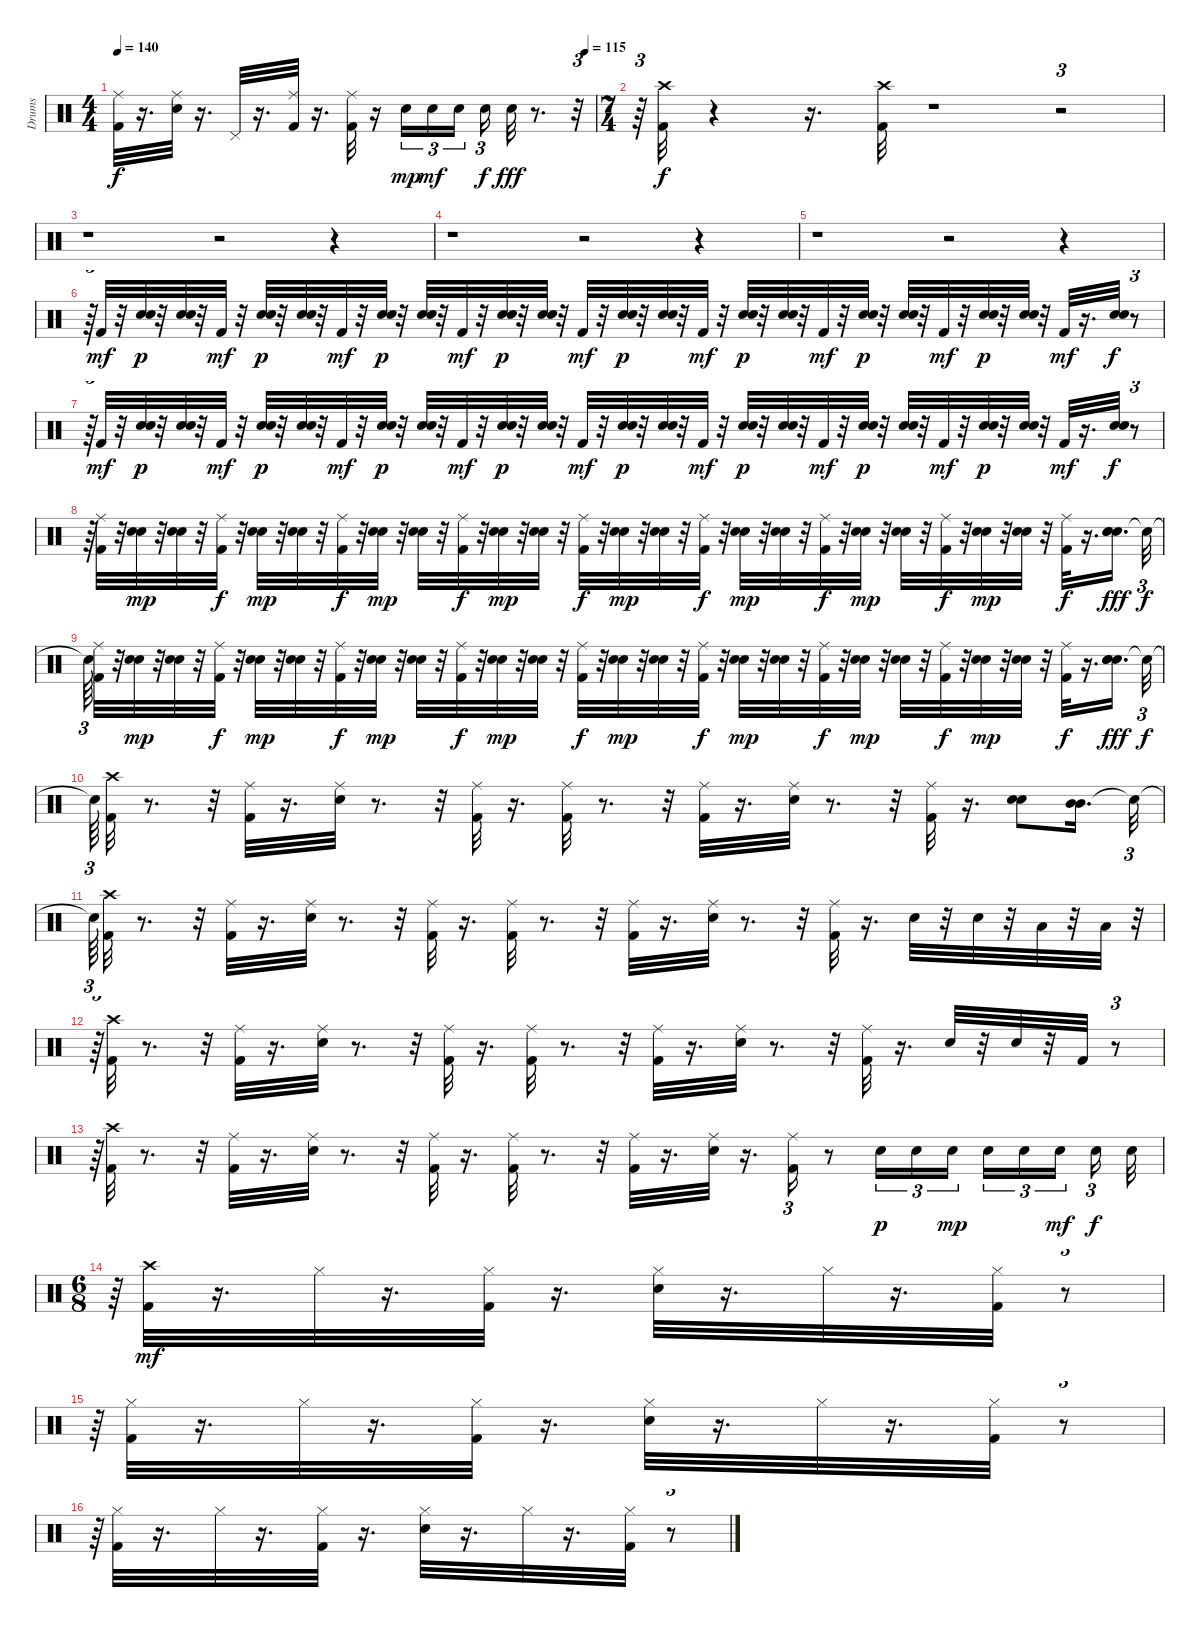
\track ("Drums" "Drums") {instrument percussion}
\staff {score}
\articulation defaults
\ts (4 4)
\tempo 140
\tempo (115 0.9791666666666666)
\clef neutral
\ks c
("Ride (middle)" "Kick (hit) 2").32{dy f} r.16{d} ("Snare (hit) 2" "Ride (middle)").32 r.16{d} "Pedal Hi-Hat (hit)".32 r.16{d} ("Ride (middle)" "Kick (hit) 2").32 r.16{d} ("Kick (hit) 2" "Ride (middle)").32 r.16 "Snare (hit) 2".16{tu (3 2) dy mp} "Snare (hit) 2".16{tu (3 2) dy mf} "Snare (hit) 2".16{tu (3 2) beam splitsecondary} "Snare (hit) 2".16{tu (3 2) dy f} "Snare (hit) 2".32{dy fff} r.8{d} r.32{tu (3 2)} |
\ts (7 4)
r.64{tu (3 2)} ("Kick (hit) 2" "Crash high (hit)").32{dy f} r.4 r.16{d} ("Crash high (hit)" "Kick (hit) 2").32 r.1 r.2{tu (3 2)} |
r.1 r.2 r.4 |
r.1 r.2 r.4 |
r.1 r.2 r.4 |
r.64{tu (3 2)} "Kick (hit) 2".32{dy mf} r.32 ("Snare (hit) 2" "Hand Clap (hit)").32{dy p} r.32 ("Snare (hit) 2" "Hand Clap (hit)").32 r.32 "Kick (hit) 2".32{dy mf} r.32 ("Snare (hit) 2" "Hand Clap (hit)").32{dy p} r.32 ("Hand Clap (hit)" "Snare (hit) 2").32 r.32 "Kick (hit) 2".32{dy mf} r.32 ("Hand Clap (hit)" "Snare (hit) 2").32{dy p} r.32 ("Hand Clap (hit)" "Snare (hit) 2").32 r.32 "Kick (hit) 2".32{dy mf} r.32 ("Snare (hit) 2" "Hand Clap (hit)").32{dy p} r.32 ("Hand Clap (hit)" "Snare (hit) 2").32 r.32 "Kick (hit) 2".32{dy mf} r.32 ("Hand Clap (hit)" "Snare (hit) 2").32{dy p} r.32 ("Hand Clap (hit)" "Snare (hit) 2").32 r.32 "Kick (hit) 2".32{dy mf} r.32 ("Hand Clap (hit)" "Snare (hit) 2").32{dy p} r.32 ("Snare (hit) 2" "Hand Clap (hit)").32 r.32 "Kick (hit) 2".32{dy mf} r.32 ("Hand Clap (hit)" "Snare (hit) 2").32{dy p} r.32 ("Hand Clap (hit)" "Snare (hit) 2").32 r.32 "Kick (hit) 2".32{dy mf} r.32 ("Hand Clap (hit)" "Snare (hit) 2").32{dy p} r.32 ("Snare (hit) 2" "Hand Clap (hit)").32 r.32 "Kick (hit) 2".32{dy mf} r.16{d} ("Snare (hit) 2" "Hand Clap (hit)").32{dy f} r.8{tu (3 2)} |
r.64{tu (3 2)} "Kick (hit) 2".32{dy mf} r.32 ("Snare (hit) 2" "Hand Clap (hit)").32{dy p} r.32 ("Snare (hit) 2" "Hand Clap (hit)").32 r.32 "Kick (hit) 2".32{dy mf} r.32 ("Snare (hit) 2" "Hand Clap (hit)").32{dy p} r.32 ("Hand Clap (hit)" "Snare (hit) 2").32 r.32 "Kick (hit) 2".32{dy mf} r.32 ("Hand Clap (hit)" "Snare (hit) 2").32{dy p} r.32 ("Hand Clap (hit)" "Snare (hit) 2").32 r.32 "Kick (hit) 2".32{dy mf} r.32 ("Snare (hit) 2" "Hand Clap (hit)").32{dy p} r.32 ("Hand Clap (hit)" "Snare (hit) 2").32 r.32 "Kick (hit) 2".32{dy mf} r.32 ("Hand Clap (hit)" "Snare (hit) 2").32{dy p} r.32 ("Hand Clap (hit)" "Snare (hit) 2").32 r.32 "Kick (hit) 2".32{dy mf} r.32 ("Hand Clap (hit)" "Snare (hit) 2").32{dy p} r.32 ("Snare (hit) 2" "Hand Clap (hit)").32 r.32 "Kick (hit) 2".32{dy mf} r.32 ("Hand Clap (hit)" "Snare (hit) 2").32{dy p} r.32 ("Hand Clap (hit)" "Snare (hit) 2").32 r.32 "Kick (hit) 2".32{dy mf} r.32 ("Hand Clap (hit)" "Snare (hit) 2").32{dy p} r.32 ("Snare (hit) 2" "Hand Clap (hit)").32 r.32 "Kick (hit) 2".32{dy mf} r.16{d} ("Snare (hit) 2" "Hand Clap (hit)").32{dy f} r.8{tu (3 2)} |
r.64{tu (3 2)} ("Kick (hit) 2" "Ride (middle)").32 r.32 ("Snare (hit) 2" "Hand Clap (hit)").32{dy mp} r.32 ("Hand Clap (hit)" "Snare (hit) 2").32 r.32 ("Kick (hit) 2" "Ride (middle)").32{dy f} r.32 ("Snare (hit) 2" "Hand Clap (hit)").32{dy mp} r.32 ("Snare (hit) 2" "Hand Clap (hit)").32 r.32 ("Ride (middle)" "Kick (hit) 2").32{dy f} r.32 ("Snare (hit) 2" "Hand Clap (hit)").32{dy mp} r.32 ("Snare (hit) 2" "Hand Clap (hit)").32 r.32 ("Kick (hit) 2" "Ride (middle)").32{dy f} r.32 ("Snare (hit) 2" "Hand Clap (hit)").32{dy mp} r.32 ("Hand Clap (hit)" "Snare (hit) 2").32 r.32 ("Kick (hit) 2" "Ride (middle)").32{dy f} r.32 ("Snare (hit) 2" "Hand Clap (hit)").32{dy mp} r.32 ("Snare (hit) 2" "Hand Clap (hit)").32 r.32 ("Ride (middle)" "Kick (hit) 2").32{dy f} r.32 ("Hand Clap (hit)" "Snare (hit) 2").32{dy mp} r.32 ("Hand Clap (hit)" "Snare (hit) 2").32 r.32 ("Kick (hit) 2" "Ride (middle)").32{dy f} r.32 ("Hand Clap (hit)" "Snare (hit) 2").32{dy mp} r.32 ("Hand Clap (hit)" "Snare (hit) 2").32 r.32 ("Kick (hit) 2" "Ride (middle)").32{dy f} r.32 ("Hand Clap (hit)" "Snare (hit) 2").32{dy mp} r.32 ("Hand Clap (hit)" "Snare (hit) 2").32 r.32 ("Kick (hit) 2" "Ride (middle)").32{dy f} r.16{d} ("Hand Clap (hit)" "Snare (hit) 2" "Snare (hit) 2").16{d dy fff} "Snare (hit)"{t}.32{tu (3 2) dy f} |
"Snare (hit)"{t}.64{tu (3 2)} ("Kick (hit) 2" "Ride (middle)").32 r.32 ("Snare (hit) 2" "Hand Clap (hit)").32{dy mp} r.32 ("Hand Clap (hit)" "Snare (hit) 2").32 r.32 ("Ride (middle)" "Kick (hit) 2").32{dy f} r.32 ("Hand Clap (hit)" "Snare (hit) 2").32{dy mp} r.32 ("Snare (hit) 2" "Hand Clap (hit)").32 r.32 ("Ride (middle)" "Kick (hit) 2").32{dy f} r.32 ("Snare (hit) 2" "Hand Clap (hit)").32{dy mp} r.32 ("Hand Clap (hit)" "Snare (hit) 2").32 r.32 ("Kick (hit) 2" "Ride (middle)").32{dy f} r.32 ("Hand Clap (hit)" "Snare (hit) 2").32{dy mp} r.32 ("Snare (hit) 2" "Hand Clap (hit)").32 r.32 ("Ride (middle)" "Kick (hit) 2").32{dy f} r.32 ("Snare (hit) 2" "Hand Clap (hit)").32{dy mp} r.32 ("Hand Clap (hit)" "Snare (hit) 2").32 r.32 ("Ride (middle)" "Kick (hit) 2").32{dy f} r.32 ("Hand Clap (hit)" "Snare (hit) 2").32{dy mp} r.32 ("Snare (hit) 2" "Hand Clap (hit)").32 r.32 ("Kick (hit) 2" "Ride (middle)").32{dy f} r.32 ("Hand Clap (hit)" "Snare (hit) 2").32{dy mp} r.32 ("Snare (hit) 2" "Hand Clap (hit)").32 r.32 ("Kick (hit) 2" "Ride (middle)").32{dy f} r.32 ("Snare (hit) 2" "Hand Clap (hit)").32{dy mp} r.32 ("Hand Clap (hit)" "Snare (hit) 2").32 r.32 ("Ride (middle)" "Kick (hit) 2").32{dy f} r.16{d} ("Snare (hit) 2" "Hand Clap (hit)" "Snare (hit) 2").16{d dy fff} "Snare (hit)"{t}.32{tu (3 2) dy f} |
"Snare (hit)"{t}.64{tu (3 2)} ("Crash high (hit)" "Kick (hit) 2").32 r.8{d} r.32 ("Kick (hit) 2" "Ride (middle)").32 r.16{d} ("Ride (middle)" "Snare (hit) 2").32 r.8{d} r.32 ("Ride (middle)" "Kick (hit) 2").32 r.16{d} ("Ride (middle)" "Kick (hit) 2").32 r.8{d} r.32 ("Ride (middle)" "Kick (hit) 2").32 r.16{d} ("Ride (middle)" "Snare (hit) 2").32 r.8{d} r.32 ("Ride (middle)" "Kick (hit) 2").32 r.16{d} ("Snare (hit) 2" "Snare (hit) 2").8 ("Mid Tom (hit)" "Mid Tom (hit)").16{d} "Snare (hit)"{t}.32{tu (3 2)} |
"Snare (hit)"{t}.64{tu (3 2)} ("Crash high (hit)" "Kick (hit) 2").32 r.8{d} r.32 ("Kick (hit) 2" "Ride (middle)").32 r.16{d} ("Ride (middle)" "Snare (hit) 2").32 r.8{d} r.32 ("Ride (middle)" "Kick (hit) 2").32 r.16{d} ("Ride (middle)" "Kick (hit) 2").32 r.8{d} r.32 ("Ride (middle)" "Kick (hit) 2").32 r.16{d} ("Ride (middle)" "Snare (hit) 2").32 r.8{d} r.32 ("Ride (middle)" "Kick (hit) 2").32 r.16{d} "Snare (hit) 2".32 r.32 "Snare (hit) 2".32 r.32 "Low Tom (hit)".32 r.32 "Low Tom (hit)".32 r.32{tu (3 2)} |
r.64{tu (3 2)} ("Crash high (hit)" "Kick (hit) 2").32 r.8{d} r.32 ("Kick (hit) 2" "Ride (middle)").32 r.16{d} ("Ride (middle)" "Snare (hit) 2").32 r.8{d} r.32 ("Ride (middle)" "Kick (hit) 2").32 r.16{d} ("Ride (middle)" "Kick (hit) 2").32 r.8{d} r.32 ("Ride (middle)" "Kick (hit) 2").32 r.16{d} ("Ride (middle)" "Snare (hit) 2").32 r.8{d} r.32 ("Ride (middle)" "Kick (hit) 2").32 r.16{d} "Snare (hit) 2".32 r.32 "Snare (hit) 2".32 r.32 "Kick (hit) 2".32 r.8{tu (3 2)} |
r.64{tu (3 2)} ("Crash high (hit)" "Kick (hit) 2").32 r.8{d} r.32 ("Kick (hit) 2" "Ride (middle)").32 r.16{d} ("Ride (middle)" "Snare (hit) 2").32 r.8{d} r.32 ("Ride (middle)" "Kick (hit) 2").32 r.16{d} ("Ride (middle)" "Kick (hit) 2").32 r.8{d} r.32 ("Ride (middle)" "Kick (hit) 2").32 r.16{d} ("Ride (middle)" "Snare (hit) 2").32 r.16{d} ("Ride (middle)" "Kick (hit) 2").16{tu (3 2)} r.8 "Snare (hit) 2".16{tu (3 2) dy p} "Snare (hit) 2".16{tu (3 2)} "Snare (hit) 2".16{tu (3 2) dy mp beam splitsecondary} "Snare (hit) 2".16{tu (3 2)} "Snare (hit) 2".16{tu (3 2)} "Snare (hit) 2".16{tu (3 2) dy mf beam splitsecondary} "Snare (hit) 2".16{tu (3 2) dy f} "Snare (hit) 2".32 |
\ts (6 8)
r.64{tu (3 2)} ("Kick (hit) 2" "Crash high (hit)").32{dy mf} r.16{d} "Hi-Hat (closed)".32 r.16{d} ("Hi-Hat (closed)" "Kick (hit) 2").32 r.16{d} ("Hi-Hat (closed)" "Snare (hit) 2").32 r.16{d} "Hi-Hat (closed)".32 r.16{d} ("Hi-Hat (closed)" "Kick (hit) 2").32 r.8{tu (3 2)} |
r.64{tu (3 2)} ("Hi-Hat (closed)" "Kick (hit) 2").32 r.16{d} "Hi-Hat (closed)".32 r.16{d} ("Hi-Hat (closed)" "Kick (hit) 2").32 r.16{d} ("Hi-Hat (closed)" "Snare (hit) 2").32 r.16{d} "Hi-Hat (closed)".32 r.16{d} ("Hi-Hat (closed)" "Kick (hit) 2").32 r.8{tu (3 2)} |
r.64{tu (3 2)} ("Hi-Hat (closed)" "Kick (hit) 2").32 r.16{d} "Hi-Hat (closed)".32 r.16{d} ("Hi-Hat (closed)" "Kick (hit) 2").32 r.16{d} ("Hi-Hat (closed)" "Snare (hit) 2").32 r.16{d} "Hi-Hat (closed)".32 r.16{d} ("Hi-Hat (closed)" "Kick (hit) 2").32 r.8{tu (3 2)}
